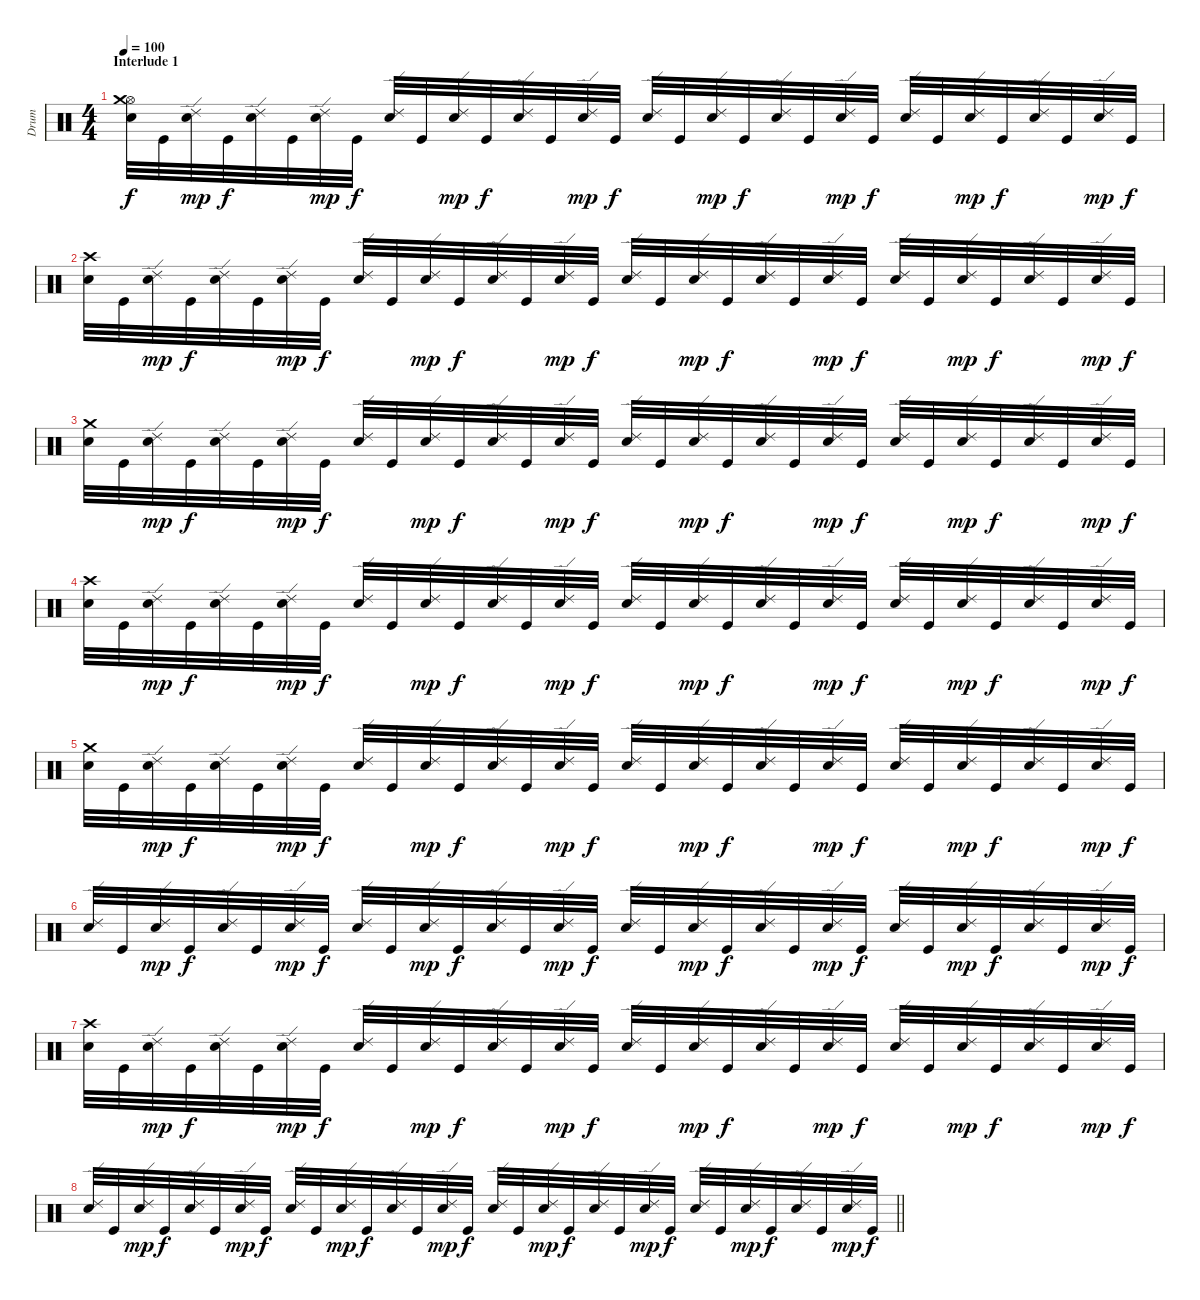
\track ("Drum" "Drum") {instrument percussion}
\staff {score}
\articulation defaults
\ts (4 4)
\section ("" "Interlude 1")
\tempo 100
\clef neutral
\ks c
("Hi-Hat (open)" "Snare (hit) 2" "Crash medium (hit)").32{dy f} "Kick (hit)".32 ("Ride (edge) 2" "Snare (hit) 2").32{dy mp} "Kick (hit)".32{dy f} ("Ride (edge) 2" "Snare (hit) 2").32 "Kick (hit)".32 ("Ride (edge) 2" "Snare (hit) 2").32{dy mp} "Kick (hit)".32{dy f} ("Ride (edge) 2" "Snare (hit) 2").32 "Kick (hit)".32 ("Ride (edge) 2" "Snare (hit) 2").32{dy mp} "Kick (hit)".32{dy f} ("Ride (edge) 2" "Snare (hit) 2").32 "Kick (hit)".32 ("Ride (edge) 2" "Snare (hit) 2").32{dy mp} "Kick (hit)".32{dy f} ("Ride (edge) 2" "Snare (hit) 2").32 "Kick (hit)".32 ("Ride (edge) 2" "Snare (hit) 2").32{dy mp} "Kick (hit)".32{dy f} ("Ride (edge) 2" "Snare (hit) 2").32 "Kick (hit)".32 ("Ride (edge) 2" "Snare (hit) 2").32{dy mp} "Kick (hit)".32{dy f} ("Ride (edge) 2" "Snare (hit) 2").32 "Kick (hit)".32 ("Ride (edge) 2" "Snare (hit) 2").32{dy mp} "Kick (hit)".32{dy f} ("Ride (edge) 2" "Snare (hit) 2").32 "Kick (hit)".32 ("Ride (edge) 2" "Snare (hit) 2").32{dy mp} "Kick (hit)".32{dy f} |
("Snare (hit) 2" "Crash high (hit)").32 "Kick (hit)".32 ("Ride (edge) 2" "Snare (hit) 2").32{dy mp} "Kick (hit)".32{dy f} ("Ride (edge) 2" "Snare (hit) 2").32 "Kick (hit)".32 ("Ride (edge) 2" "Snare (hit) 2").32{dy mp} "Kick (hit)".32{dy f} ("Ride (edge) 2" "Snare (hit) 2").32 "Kick (hit)".32 ("Ride (edge) 2" "Snare (hit) 2").32{dy mp} "Kick (hit)".32{dy f} ("Ride (edge) 2" "Snare (hit) 2").32 "Kick (hit)".32 ("Ride (edge) 2" "Snare (hit) 2").32{dy mp} "Kick (hit)".32{dy f} ("Ride (edge) 2" "Snare (hit) 2").32 "Kick (hit)".32 ("Ride (edge) 2" "Snare (hit) 2").32{dy mp} "Kick (hit)".32{dy f} ("Ride (edge) 2" "Snare (hit) 2").32 "Kick (hit)".32 ("Ride (edge) 2" "Snare (hit) 2").32{dy mp} "Kick (hit)".32{dy f} ("Ride (edge) 2" "Snare (hit) 2").32 "Kick (hit)".32 ("Ride (edge) 2" "Snare (hit) 2").32{dy mp} "Kick (hit)".32{dy f} ("Ride (edge) 2" "Snare (hit) 2").32 "Kick (hit)".32 ("Ride (edge) 2" "Snare (hit) 2").32{dy mp} "Kick (hit)".32{dy f} |
("Snare (hit) 2" "Crash medium (hit)").32 "Kick (hit)".32 ("Ride (edge) 2" "Snare (hit) 2").32{dy mp} "Kick (hit)".32{dy f} ("Ride (edge) 2" "Snare (hit) 2").32 "Kick (hit)".32 ("Ride (edge) 2" "Snare (hit) 2").32{dy mp} "Kick (hit)".32{dy f} ("Ride (edge) 2" "Snare (hit) 2").32 "Kick (hit)".32 ("Ride (edge) 2" "Snare (hit) 2").32{dy mp} "Kick (hit)".32{dy f} ("Ride (edge) 2" "Snare (hit) 2").32 "Kick (hit)".32 ("Ride (edge) 2" "Snare (hit) 2").32{dy mp} "Kick (hit)".32{dy f} ("Ride (edge) 2" "Snare (hit) 2").32 "Kick (hit)".32 ("Ride (edge) 2" "Snare (hit) 2").32{dy mp} "Kick (hit)".32{dy f} ("Ride (edge) 2" "Snare (hit) 2").32 "Kick (hit)".32 ("Ride (edge) 2" "Snare (hit) 2").32{dy mp} "Kick (hit)".32{dy f} ("Ride (edge) 2" "Snare (hit) 2").32 "Kick (hit)".32 ("Ride (edge) 2" "Snare (hit) 2").32{dy mp} "Kick (hit)".32{dy f} ("Ride (edge) 2" "Snare (hit) 2").32 "Kick (hit)".32 ("Ride (edge) 2" "Snare (hit) 2").32{dy mp} "Kick (hit)".32{dy f} |
("Snare (hit) 2" "Crash high (hit)").32 "Kick (hit)".32 ("Ride (edge) 2" "Snare (hit) 2").32{dy mp} "Kick (hit)".32{dy f} ("Ride (edge) 2" "Snare (hit) 2").32 "Kick (hit)".32 ("Ride (edge) 2" "Snare (hit) 2").32{dy mp} "Kick (hit)".32{dy f} ("Ride (edge) 2" "Snare (hit) 2").32 "Kick (hit)".32 ("Ride (edge) 2" "Snare (hit) 2").32{dy mp} "Kick (hit)".32{dy f} ("Ride (edge) 2" "Snare (hit) 2").32 "Kick (hit)".32 ("Ride (edge) 2" "Snare (hit) 2").32{dy mp} "Kick (hit)".32{dy f} ("Ride (edge) 2" "Snare (hit) 2").32 "Kick (hit)".32 ("Ride (edge) 2" "Snare (hit) 2").32{dy mp} "Kick (hit)".32{dy f} ("Ride (edge) 2" "Snare (hit) 2").32 "Kick (hit)".32 ("Ride (edge) 2" "Snare (hit) 2").32{dy mp} "Kick (hit)".32{dy f} ("Ride (edge) 2" "Snare (hit) 2").32 "Kick (hit)".32 ("Ride (edge) 2" "Snare (hit) 2").32{dy mp} "Kick (hit)".32{dy f} ("Ride (edge) 2" "Snare (hit) 2").32 "Kick (hit)".32 ("Ride (edge) 2" "Snare (hit) 2").32{dy mp} "Kick (hit)".32{dy f} |
("Snare (hit) 2" "Crash medium (hit)").32 "Kick (hit)".32 ("Ride (edge) 2" "Snare (hit) 2").32{dy mp} "Kick (hit)".32{dy f} ("Ride (edge) 2" "Snare (hit) 2").32 "Kick (hit)".32 ("Ride (edge) 2" "Snare (hit) 2").32{dy mp} "Kick (hit)".32{dy f} ("Ride (edge) 2" "Snare (hit) 2").32 "Kick (hit)".32 ("Ride (edge) 2" "Snare (hit) 2").32{dy mp} "Kick (hit)".32{dy f} ("Ride (edge) 2" "Snare (hit) 2").32 "Kick (hit)".32 ("Ride (edge) 2" "Snare (hit) 2").32{dy mp} "Kick (hit)".32{dy f} ("Ride (edge) 2" "Snare (hit) 2").32 "Kick (hit)".32 ("Ride (edge) 2" "Snare (hit) 2").32{dy mp} "Kick (hit)".32{dy f} ("Ride (edge) 2" "Snare (hit) 2").32 "Kick (hit)".32 ("Ride (edge) 2" "Snare (hit) 2").32{dy mp} "Kick (hit)".32{dy f} ("Ride (edge) 2" "Snare (hit) 2").32 "Kick (hit)".32 ("Ride (edge) 2" "Snare (hit) 2").32{dy mp} "Kick (hit)".32{dy f} ("Ride (edge) 2" "Snare (hit) 2").32 "Kick (hit)".32 ("Ride (edge) 2" "Snare (hit) 2").32{dy mp} "Kick (hit)".32{dy f} |
("Ride (edge) 2" "Snare (hit) 2").32 "Kick (hit)".32 ("Ride (edge) 2" "Snare (hit) 2").32{dy mp} "Kick (hit)".32{dy f} ("Ride (edge) 2" "Snare (hit) 2").32 "Kick (hit)".32 ("Ride (edge) 2" "Snare (hit) 2").32{dy mp} "Kick (hit)".32{dy f} ("Ride (edge) 2" "Snare (hit) 2").32 "Kick (hit)".32 ("Ride (edge) 2" "Snare (hit) 2").32{dy mp} "Kick (hit)".32{dy f} ("Ride (edge) 2" "Snare (hit) 2").32 "Kick (hit)".32 ("Ride (edge) 2" "Snare (hit) 2").32{dy mp} "Kick (hit)".32{dy f} ("Ride (edge) 2" "Snare (hit) 2").32 "Kick (hit)".32 ("Ride (edge) 2" "Snare (hit) 2").32{dy mp} "Kick (hit)".32{dy f} ("Ride (edge) 2" "Snare (hit) 2").32 "Kick (hit)".32 ("Ride (edge) 2" "Snare (hit) 2").32{dy mp} "Kick (hit)".32{dy f} ("Ride (edge) 2" "Snare (hit) 2").32 "Kick (hit)".32 ("Ride (edge) 2" "Snare (hit) 2").32{dy mp} "Kick (hit)".32{dy f} ("Ride (edge) 2" "Snare (hit) 2").32 "Kick (hit)".32 ("Ride (edge) 2" "Snare (hit) 2").32{dy mp} "Kick (hit)".32{dy f} |
("Snare (hit) 2" "Crash high (hit)").32 "Kick (hit)".32 ("Ride (edge) 2" "Snare (hit) 2").32{dy mp} "Kick (hit)".32{dy f} ("Ride (edge) 2" "Snare (hit) 2").32 "Kick (hit)".32 ("Ride (edge) 2" "Snare (hit) 2").32{dy mp} "Kick (hit)".32{dy f} ("Ride (edge) 2" "Snare (hit) 2").32 "Kick (hit)".32 ("Ride (edge) 2" "Snare (hit) 2").32{dy mp} "Kick (hit)".32{dy f} ("Ride (edge) 2" "Snare (hit) 2").32 "Kick (hit)".32 ("Ride (edge) 2" "Snare (hit) 2").32{dy mp} "Kick (hit)".32{dy f} ("Ride (edge) 2" "Snare (hit) 2").32 "Kick (hit)".32 ("Ride (edge) 2" "Snare (hit) 2").32{dy mp} "Kick (hit)".32{dy f} ("Ride (edge) 2" "Snare (hit) 2").32 "Kick (hit)".32 ("Ride (edge) 2" "Snare (hit) 2").32{dy mp} "Kick (hit)".32{dy f} ("Ride (edge) 2" "Snare (hit) 2").32 "Kick (hit)".32 ("Ride (edge) 2" "Snare (hit) 2").32{dy mp} "Kick (hit)".32{dy f} ("Ride (edge) 2" "Snare (hit) 2").32 "Kick (hit)".32 ("Ride (edge) 2" "Snare (hit) 2").32{dy mp} "Kick (hit)".32{dy f} |
\barLineRight lightlight
("Ride (edge) 2" "Snare (hit) 2").32 "Kick (hit)".32 ("Ride (edge) 2" "Snare (hit) 2").32{dy mp} "Kick (hit)".32{dy f} ("Ride (edge) 2" "Snare (hit) 2").32 "Kick (hit)".32 ("Ride (edge) 2" "Snare (hit) 2").32{dy mp} "Kick (hit)".32{dy f} ("Ride (edge) 2" "Snare (hit) 2").32 "Kick (hit)".32 ("Ride (edge) 2" "Snare (hit) 2").32{dy mp} "Kick (hit)".32{dy f} ("Ride (edge) 2" "Snare (hit) 2").32 "Kick (hit)".32 ("Ride (edge) 2" "Snare (hit) 2").32{dy mp} "Kick (hit)".32{dy f} ("Ride (edge) 2" "Snare (hit) 2").32 "Kick (hit)".32 ("Ride (edge) 2" "Snare (hit) 2").32{dy mp} "Kick (hit)".32{dy f} ("Ride (edge) 2" "Snare (hit) 2").32 "Kick (hit)".32 ("Ride (edge) 2" "Snare (hit) 2").32{dy mp} "Kick (hit)".32{dy f} ("Ride (edge) 2" "Snare (hit) 2").32 "Kick (hit)".32 ("Ride (edge) 2" "Snare (hit) 2").32{dy mp} "Kick (hit)".32{dy f} ("Ride (edge) 2" "Snare (hit) 2").32 "Kick (hit)".32 ("Ride (edge) 2" "Snare (hit) 2").32{dy mp} "Kick (hit)".32{dy f}
